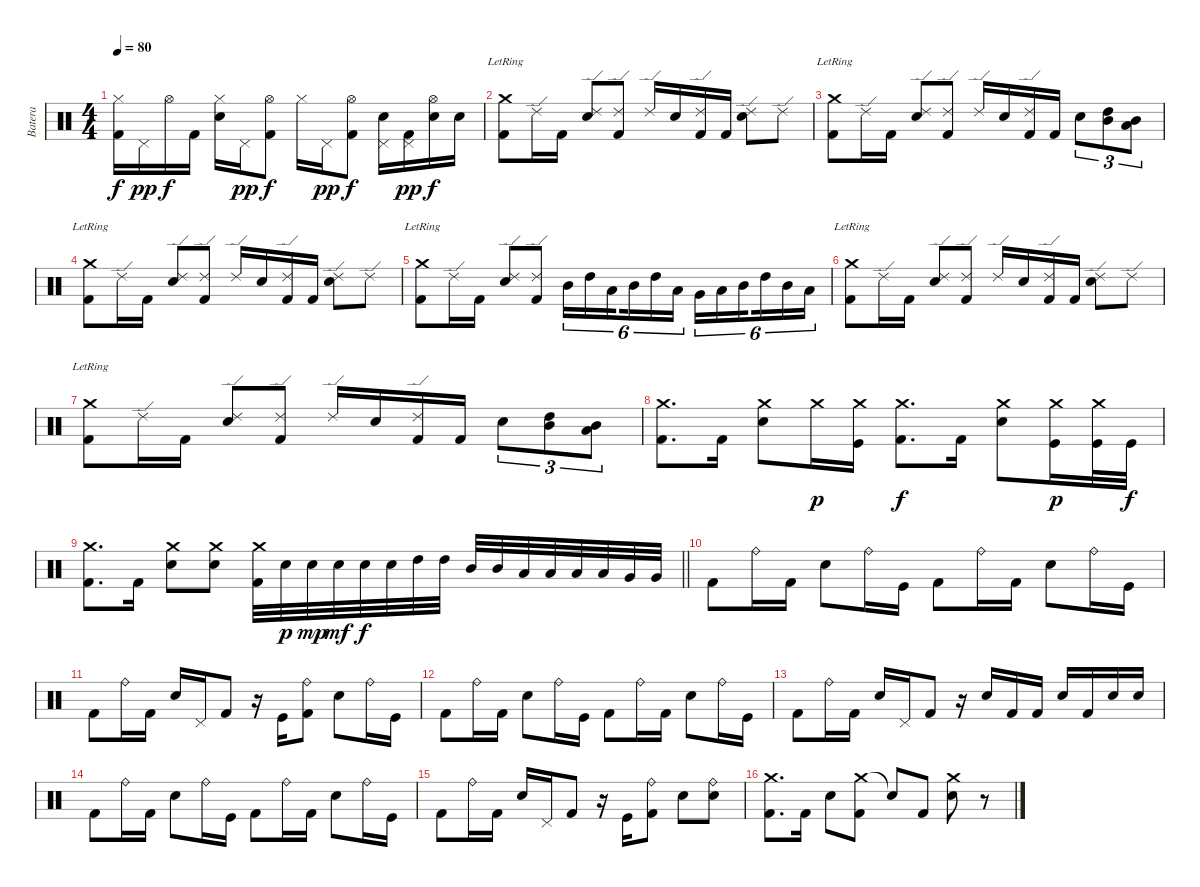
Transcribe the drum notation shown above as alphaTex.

\track ("Batera" "Batera") {instrument percussion}
\staff {score}
\articulation defaults
\ts (4 4)
\tempo 80
\clef neutral
\ks c
("Hi-Hat (closed)" "Kick (hit) 2").16{dy f} "Pedal Hi-Hat (hit)".16{dy pp} "Hi-Hat (open)".16{dy f} "Kick (hit) 2".16 ("Hi-Hat (closed)" "Electric Snare (hit)").16 "Pedal Hi-Hat (hit)".16{dy pp} ("Hi-Hat (open)" "Kick (hit) 2").8{dy f} "Hi-Hat (closed)".16 "Pedal Hi-Hat (hit)".16{dy pp} ("Hi-Hat (open)" "Kick (hit) 2").8{dy f} ("Pedal Hi-Hat (hit)" "Electric Snare (hit)").16 ("Pedal Hi-Hat (hit)" "Kick (hit) 2").16{dy pp} ("Hi-Hat (open)" "Electric Snare (hit)").16{dy f} "Electric Snare (hit)".16 |
("Crash medium (hit)"{lr} "Kick (hit) 2").8 "Ride (edge) 2".16 "Kick (hit) 2".16 ("Ride (edge) 2" "Electric Snare (hit)").8 ("Ride (edge) 2" "Kick (hit) 2").8 "Ride (edge) 2".16 "Electric Snare (hit)".16 ("Ride (edge) 2" "Kick (hit) 2").16 "Kick (hit) 2".16 ("Ride (edge) 2" "Electric Snare (hit)").8 "Ride (edge) 2".8 |
("Crash medium (hit)"{lr} "Kick (hit) 2").8 "Ride (edge) 2".16 "Kick (hit) 2".16 ("Ride (edge) 2" "Electric Snare (hit)").8 ("Ride (edge) 2" "Kick (hit) 2").8 "Ride (edge) 2".16 "Electric Snare (hit)".16 ("Ride (edge) 2" "Kick (hit) 2").16 "Kick (hit) 2".16 "Electric Snare (hit)".8{tu (3 2)} ("High Tom (hit)" "Mid Tom (hit)").8{tu (3 2)} ("Mid Tom (hit)" "Low Tom (hit)").8{tu (3 2)} |
("Crash medium (hit)"{lr} "Kick (hit) 2").8 "Ride (edge) 2".16 "Kick (hit) 2".16 ("Ride (edge) 2" "Electric Snare (hit)").8 ("Ride (edge) 2" "Kick (hit) 2").8 "Ride (edge) 2".16 "Electric Snare (hit)".16 ("Ride (edge) 2" "Kick (hit) 2").16 "Kick (hit) 2".16 ("Ride (edge) 2" "Electric Snare (hit)").8 "Ride (edge) 2".8 |
("Crash medium (hit)"{lr} "Kick (hit) 2").8 "Ride (edge) 2".16 "Kick (hit) 2".16 ("Ride (edge) 2" "Electric Snare (hit)").8 ("Ride (edge) 2" "Kick (hit) 2").8 "Mid Tom (hit)".16{tu (6 4)} "High Tom (hit)".16{tu (6 4)} "Low Tom (hit)".16{tu (6 4) beam splitsecondary} "Mid Tom (hit)".16{tu (6 4)} "High Tom (hit)".16{tu (6 4)} "Low Tom (hit)".16{tu (6 4)} "Very Low Tom (hit)".16{tu (6 4)} "Low Tom (hit)".16{tu (6 4)} "Mid Tom (hit)".16{tu (6 4) beam splitsecondary} "High Tom (hit)".16{tu (6 4)} "Mid Tom (hit)".16{tu (6 4)} "Low Tom (hit)".16{tu (6 4)} |
("Crash medium (hit)"{lr} "Kick (hit) 2").8 "Ride (edge) 2".16 "Kick (hit) 2".16 ("Ride (edge) 2" "Electric Snare (hit)").8 ("Ride (edge) 2" "Kick (hit) 2").8 "Ride (edge) 2".16 "Electric Snare (hit)".16 ("Ride (edge) 2" "Kick (hit) 2").16 "Kick (hit) 2".16 ("Ride (edge) 2" "Electric Snare (hit)").8 "Ride (edge) 2".8 |
("Crash medium (hit)"{lr} "Kick (hit) 2").8 "Ride (edge) 2".16 "Kick (hit) 2".16 ("Ride (edge) 2" "Electric Snare (hit)").8 ("Ride (edge) 2" "Kick (hit) 2").8 "Ride (edge) 2".16 "Electric Snare (hit)".16 ("Ride (edge) 2" "Kick (hit) 2").16 "Kick (hit) 2".16 "Electric Snare (hit)".8{tu (3 2)} ("High Tom (hit)" "Mid Tom (hit)").8{tu (3 2)} ("Mid Tom (hit)" "Low Tom (hit)").8{tu (3 2)} |
("Crash medium (hit)" "Kick (hit) 2").8{d} "Kick (hit) 2".16 ("Crash medium (hit)" "Electric Snare (hit)").8 "Crash medium (hit)".16{dy p} ("Crash medium (hit)" "Kick (hit)").16 ("Crash medium (hit)" "Kick (hit) 2").8{d dy f} "Kick (hit) 2".16 ("Crash medium (hit)" "Electric Snare (hit)").8 ("Crash medium (hit)" "Kick (hit)").16{dy p} ("Crash medium (hit)" "Kick (hit)").32 "Kick (hit)".32{dy f} |
\barLineRight lightlight
("Crash medium (hit)" "Kick (hit) 2").8{d} "Kick (hit) 2".16 ("Crash medium (hit)" "Electric Snare (hit)").8 ("Crash medium (hit)" "Electric Snare (hit)").8 ("Crash medium (hit)" "Kick (hit) 2").32 "Electric Snare (hit)".32{dy p} "Electric Snare (hit)".32{dy mp} "Electric Snare (hit)".32{dy mf} "Electric Snare (hit)".32{dy f} "Electric Snare (hit)".32 "High Tom (hit)".32 "High Tom (hit)".32 "Mid Tom (hit)".32 "Mid Tom (hit)".32 "Low Tom (hit)".32 "Low Tom (hit)".32 "Low Tom (hit)".32 "Low Tom (hit)".32 "Very Low Tom (hit)".32 "Very Low Tom (hit)".32 |
"Kick (hit) 2".8 "Ride (bell)".16 "Kick (hit) 2".16 "Electric Snare (hit)".8 "Ride (bell)".16 "Kick (hit)".16 "Kick (hit) 2".8 "Ride (bell)".16 "Kick (hit) 2".16 "Electric Snare (hit)".8 "Ride (bell)".16 "Kick (hit)".16 |
"Kick (hit) 2".8 "Ride (bell)".16 "Kick (hit) 2".16 "Electric Snare (hit)".16 "Pedal Hi-Hat (hit)".16 "Kick (hit) 2".8 r.16 "Kick (hit)".16 ("Ride (bell)" "Kick (hit) 2").8 "Electric Snare (hit)".8 "Ride (bell)".16 "Kick (hit)".16 |
"Kick (hit) 2".8 "Ride (bell)".16 "Kick (hit) 2".16 "Electric Snare (hit)".8 "Ride (bell)".16 "Kick (hit)".16 "Kick (hit) 2".8 "Ride (bell)".16 "Kick (hit) 2".16 "Electric Snare (hit)".8 "Ride (bell)".16 "Kick (hit)".16 |
"Kick (hit) 2".8 "Ride (bell)".16 "Kick (hit) 2".16 "Electric Snare (hit)".16 "Pedal Hi-Hat (hit)".16 "Kick (hit) 2".8 r.16 "Electric Snare (hit)".16 "Kick (hit) 2".16 "Kick (hit) 2".16 "Electric Snare (hit)".16 "Kick (hit) 2".16 "Electric Snare (hit)".16 "Electric Snare (hit)".16 |
"Kick (hit) 2".8 "Ride (bell)".16 "Kick (hit) 2".16 "Electric Snare (hit)".8 "Ride (bell)".16 "Kick (hit)".16 "Kick (hit) 2".8 "Ride (bell)".16 "Kick (hit) 2".16 "Electric Snare (hit)".8 "Ride (bell)".16 "Kick (hit)".16 |
"Kick (hit) 2".8 "Ride (bell)".16 "Kick (hit) 2".16 "Electric Snare (hit)".16 "Pedal Hi-Hat (hit)".16 "Kick (hit) 2".8 r.16 "Kick (hit)".16 ("Ride (bell)" "Kick (hit) 2").8 "Electric Snare (hit)".8 ("Ride (bell)" "Electric Snare (hit)").8 |
("Crash medium (hit)" "Kick (hit) 2").8{d} "Kick (hit) 2".16 "Electric Snare (hit)".8 ("Crash medium (hit)" "Kick (hit) 2").8 "Snare (hit)"{t}.8 "Kick (hit) 2".8 ("Crash medium (hit)" "Electric Snare (hit)").8 r.8
